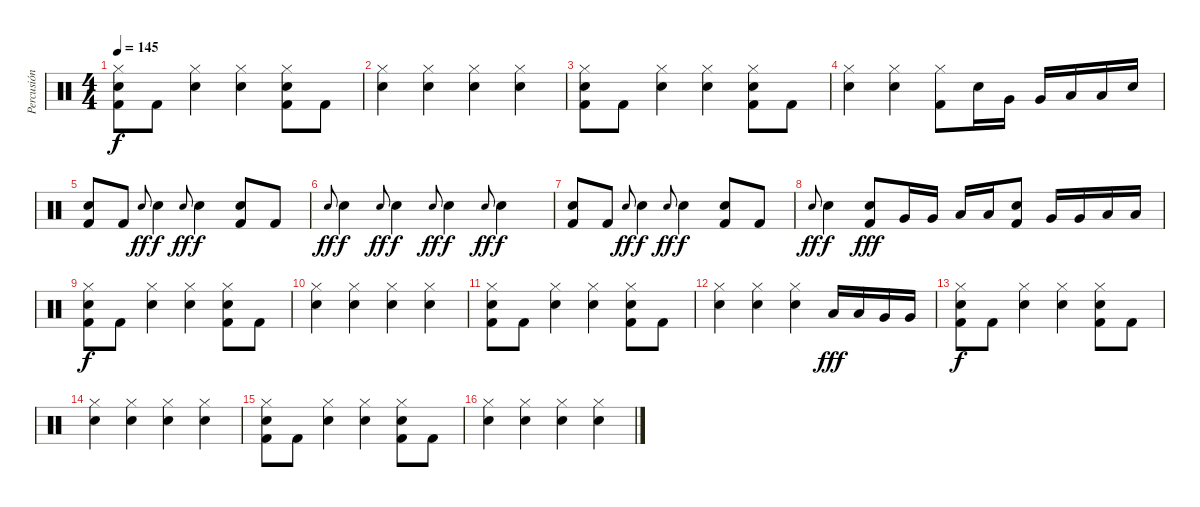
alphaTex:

\track ("Percusión" "Percusión") {instrument percussion}
\staff {score}
\articulation defaults
\ts (4 4)
\tempo 145
\clef neutral
\ks c
("Hi-Hat (closed)" "Snare (hit) 2" "Kick (hit) 2").8{dy f} "Kick (hit) 2".8 ("Hi-Hat (closed)" "Snare (hit) 2").4 ("Hi-Hat (closed)" "Snare (hit) 2").4 ("Hi-Hat (closed)" "Snare (hit) 2" "Kick (hit) 2").8 "Kick (hit) 2".8 |
("Hi-Hat (closed)" "Snare (hit) 2").4 ("Hi-Hat (closed)" "Snare (hit) 2").4 ("Hi-Hat (closed)" "Snare (hit) 2").4 ("Hi-Hat (closed)" "Snare (hit) 2").4 |
("Hi-Hat (closed)" "Snare (hit) 2" "Kick (hit) 2").8 "Kick (hit) 2".8 ("Hi-Hat (closed)" "Snare (hit) 2").4 ("Hi-Hat (closed)" "Snare (hit) 2").4 ("Hi-Hat (closed)" "Snare (hit) 2" "Kick (hit) 2").8 "Kick (hit) 2".8 |
("Hi-Hat (closed)" "Snare (hit) 2").4 ("Hi-Hat (closed)" "Snare (hit) 2").4 ("Hi-Hat (closed)" "Kick (hit) 2").8 "Snare (hit) 2".16 "Very Low Tom (hit)".16 "Very Low Tom (hit)".16 "Low Tom (hit)".16 "Low Tom (hit)".16 "Snare (hit) 2".16 |
("Snare (hit) 2" "Kick (hit) 2").8 "Kick (hit) 2".8 "Snare (hit) 2".8{gr onbeat dy ff} "Snare (hit) 2".4{dy f} "Snare (hit) 2".8{gr onbeat dy ff} "Snare (hit) 2".4{dy f} ("Snare (hit) 2" "Kick (hit) 2").8 "Kick (hit) 2".8 |
"Snare (hit) 2".8{gr onbeat dy ff} "Snare (hit) 2".4{dy f} "Snare (hit) 2".8{gr onbeat dy ff} "Snare (hit) 2".4{dy f} "Snare (hit) 2".8{gr onbeat dy ff} "Snare (hit) 2".4{dy f} "Snare (hit) 2".8{gr onbeat dy ff} "Snare (hit) 2".4{dy f} |
("Snare (hit) 2" "Kick (hit) 2").8 "Kick (hit) 2".8 "Snare (hit) 2".8{gr onbeat dy ff} "Snare (hit) 2".4{dy f} "Snare (hit) 2".8{gr onbeat dy ff} "Snare (hit) 2".4{dy f} ("Snare (hit) 2" "Kick (hit) 2").8 "Kick (hit) 2".8 |
"Snare (hit) 2".8{gr onbeat dy ff} "Snare (hit) 2".4{dy f} ("Snare (hit) 2" "Kick (hit) 2").8{dy fff} "Very Low Tom (hit)".16 "Very Low Tom (hit)".16 "Low Tom (hit)".16 "Low Tom (hit)".16 ("Snare (hit) 2" "Kick (hit) 2").8 "Very Low Tom (hit)".16 "Very Low Tom (hit)".16 "Low Tom (hit)".16 "Low Tom (hit)".16 |
("Hi-Hat (closed)" "Snare (hit) 2" "Kick (hit) 2").8{dy f} "Kick (hit) 2".8 ("Hi-Hat (closed)" "Snare (hit) 2").4 ("Hi-Hat (closed)" "Snare (hit) 2").4 ("Hi-Hat (closed)" "Snare (hit) 2" "Kick (hit) 2").8 "Kick (hit) 2".8 |
("Hi-Hat (closed)" "Snare (hit) 2").4 ("Hi-Hat (closed)" "Snare (hit) 2").4 ("Hi-Hat (closed)" "Snare (hit) 2").4 ("Hi-Hat (closed)" "Snare (hit) 2").4 |
("Hi-Hat (closed)" "Snare (hit) 2" "Kick (hit) 2").8 "Kick (hit) 2".8 ("Hi-Hat (closed)" "Snare (hit) 2").4 ("Hi-Hat (closed)" "Snare (hit) 2").4 ("Hi-Hat (closed)" "Snare (hit) 2" "Kick (hit) 2").8 "Kick (hit) 2".8 |
("Hi-Hat (closed)" "Snare (hit) 2").4 ("Hi-Hat (closed)" "Snare (hit) 2").4 ("Hi-Hat (closed)" "Snare (hit) 2").4 "Low Tom (hit)".16{dy fff} "Low Tom (hit)".16 "Very Low Tom (hit)".16 "Very Low Tom (hit)".16 |
("Hi-Hat (closed)" "Snare (hit) 2" "Kick (hit) 2").8{dy f} "Kick (hit) 2".8 ("Hi-Hat (closed)" "Snare (hit) 2").4 ("Hi-Hat (closed)" "Snare (hit) 2").4 ("Hi-Hat (closed)" "Snare (hit) 2" "Kick (hit) 2").8 "Kick (hit) 2".8 |
("Hi-Hat (closed)" "Snare (hit) 2").4 ("Hi-Hat (closed)" "Snare (hit) 2").4 ("Hi-Hat (closed)" "Snare (hit) 2").4 ("Hi-Hat (closed)" "Snare (hit) 2").4 |
("Hi-Hat (closed)" "Snare (hit) 2" "Kick (hit) 2").8 "Kick (hit) 2".8 ("Hi-Hat (closed)" "Snare (hit) 2").4 ("Hi-Hat (closed)" "Snare (hit) 2").4 ("Hi-Hat (closed)" "Snare (hit) 2" "Kick (hit) 2").8 "Kick (hit) 2".8 |
("Hi-Hat (closed)" "Snare (hit) 2").4 ("Hi-Hat (closed)" "Snare (hit) 2").4 ("Hi-Hat (closed)" "Snare (hit) 2").4 ("Hi-Hat (closed)" "Snare (hit) 2").4
